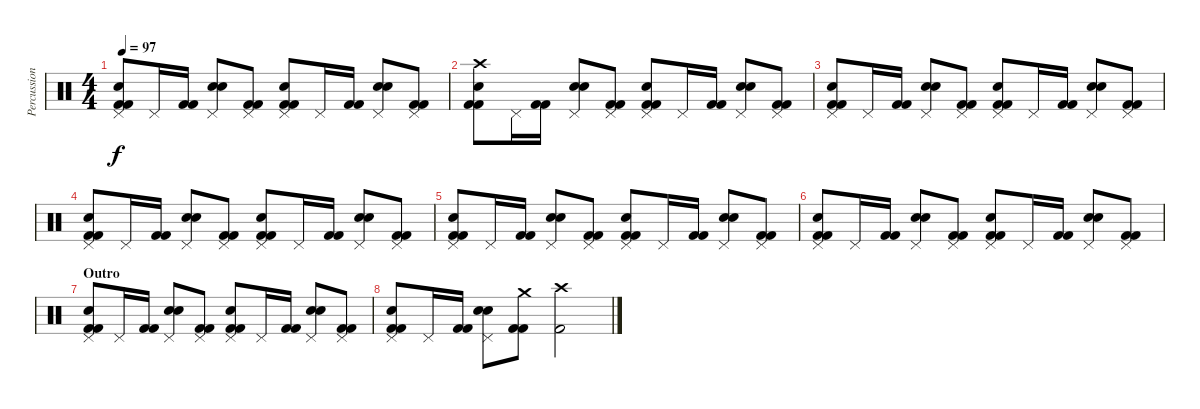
\track ("Percussions" "Percussion") {instrument percussion}
\staff {score}
\articulation defaults
\ts (4 4)
\tempo 97
\clef neutral
\ks c
("Pedal Hi-Hat (hit)" "Hand Clap (hit)" "Kick (hit) 2" "Kick (hit) 2").8{dy f} "Pedal Hi-Hat (hit)".16 ("Kick (hit) 2" "Kick (hit) 2").16 ("Pedal Hi-Hat (hit)" "Electric Snare (hit)" "Hand Clap (hit)").8 ("Pedal Hi-Hat (hit)" "Kick (hit) 2" "Kick (hit) 2").8 ("Pedal Hi-Hat (hit)" "Hand Clap (hit)" "Kick (hit) 2" "Kick (hit) 2").8 "Pedal Hi-Hat (hit)".16 ("Kick (hit) 2" "Kick (hit) 2").16 ("Pedal Hi-Hat (hit)" "Electric Snare (hit)" "Hand Clap (hit)").8 ("Pedal Hi-Hat (hit)" "Kick (hit) 2" "Kick (hit) 2").8 |
("Crash high (hit)" "Hand Clap (hit)" "Kick (hit) 2" "Kick (hit) 2").8 "Pedal Hi-Hat (hit)".16 ("Kick (hit) 2" "Kick (hit) 2").16 ("Pedal Hi-Hat (hit)" "Electric Snare (hit)" "Hand Clap (hit)").8 ("Pedal Hi-Hat (hit)" "Kick (hit) 2" "Kick (hit) 2").8 ("Pedal Hi-Hat (hit)" "Hand Clap (hit)" "Kick (hit) 2" "Kick (hit) 2").8 "Pedal Hi-Hat (hit)".16 ("Kick (hit) 2" "Kick (hit) 2").16 ("Pedal Hi-Hat (hit)" "Electric Snare (hit)" "Hand Clap (hit)").8 ("Pedal Hi-Hat (hit)" "Kick (hit) 2" "Kick (hit) 2").8 |
("Pedal Hi-Hat (hit)" "Hand Clap (hit)" "Kick (hit) 2" "Kick (hit) 2").8 "Pedal Hi-Hat (hit)".16 ("Kick (hit) 2" "Kick (hit) 2").16 ("Pedal Hi-Hat (hit)" "Electric Snare (hit)" "Hand Clap (hit)").8 ("Pedal Hi-Hat (hit)" "Kick (hit) 2" "Kick (hit) 2").8 ("Pedal Hi-Hat (hit)" "Hand Clap (hit)" "Kick (hit) 2" "Kick (hit) 2").8 "Pedal Hi-Hat (hit)".16 ("Kick (hit) 2" "Kick (hit) 2").16 ("Pedal Hi-Hat (hit)" "Electric Snare (hit)" "Hand Clap (hit)").8 ("Pedal Hi-Hat (hit)" "Kick (hit) 2" "Kick (hit) 2").8 |
("Pedal Hi-Hat (hit)" "Hand Clap (hit)" "Kick (hit) 2" "Kick (hit) 2").8 "Pedal Hi-Hat (hit)".16 ("Kick (hit) 2" "Kick (hit) 2").16 ("Pedal Hi-Hat (hit)" "Electric Snare (hit)" "Hand Clap (hit)").8 ("Pedal Hi-Hat (hit)" "Kick (hit) 2" "Kick (hit) 2").8 ("Pedal Hi-Hat (hit)" "Hand Clap (hit)" "Kick (hit) 2" "Kick (hit) 2").8 "Pedal Hi-Hat (hit)".16 ("Kick (hit) 2" "Kick (hit) 2").16 ("Pedal Hi-Hat (hit)" "Electric Snare (hit)" "Hand Clap (hit)").8 ("Pedal Hi-Hat (hit)" "Kick (hit) 2" "Kick (hit) 2").8 |
("Pedal Hi-Hat (hit)" "Hand Clap (hit)" "Kick (hit) 2" "Kick (hit) 2").8 "Pedal Hi-Hat (hit)".16 ("Kick (hit) 2" "Kick (hit) 2").16 ("Pedal Hi-Hat (hit)" "Electric Snare (hit)" "Hand Clap (hit)").8 ("Pedal Hi-Hat (hit)" "Kick (hit) 2" "Kick (hit) 2").8 ("Pedal Hi-Hat (hit)" "Hand Clap (hit)" "Kick (hit) 2" "Kick (hit) 2").8 "Pedal Hi-Hat (hit)".16 ("Kick (hit) 2" "Kick (hit) 2").16 ("Pedal Hi-Hat (hit)" "Electric Snare (hit)" "Hand Clap (hit)").8 ("Pedal Hi-Hat (hit)" "Kick (hit) 2" "Kick (hit) 2").8 |
("Pedal Hi-Hat (hit)" "Hand Clap (hit)" "Kick (hit) 2" "Kick (hit) 2").8 "Pedal Hi-Hat (hit)".16 ("Kick (hit) 2" "Kick (hit) 2").16 ("Pedal Hi-Hat (hit)" "Electric Snare (hit)" "Hand Clap (hit)").8 ("Pedal Hi-Hat (hit)" "Kick (hit) 2" "Kick (hit) 2").8 ("Pedal Hi-Hat (hit)" "Hand Clap (hit)" "Kick (hit) 2" "Kick (hit) 2").8 "Pedal Hi-Hat (hit)".16 ("Kick (hit) 2" "Kick (hit) 2").16 ("Pedal Hi-Hat (hit)" "Hand Clap (hit)" "Electric Snare (hit)").8 ("Pedal Hi-Hat (hit)" "Kick (hit) 2" "Kick (hit) 2").8 |
\section ("" "Outro")
("Pedal Hi-Hat (hit)" "Hand Clap (hit)" "Kick (hit) 2" "Kick (hit) 2").8 "Pedal Hi-Hat (hit)".16 ("Kick (hit) 2" "Kick (hit) 2").16 ("Pedal Hi-Hat (hit)" "Electric Snare (hit)" "Hand Clap (hit)").8 ("Pedal Hi-Hat (hit)" "Kick (hit) 2" "Kick (hit) 2").8 ("Pedal Hi-Hat (hit)" "Hand Clap (hit)" "Kick (hit) 2" "Kick (hit) 2").8 "Pedal Hi-Hat (hit)".16 ("Kick (hit) 2" "Kick (hit) 2").16 ("Pedal Hi-Hat (hit)" "Electric Snare (hit)" "Hand Clap (hit)").8 ("Pedal Hi-Hat (hit)" "Kick (hit) 2" "Kick (hit) 2").8 |
("Pedal Hi-Hat (hit)" "Hand Clap (hit)" "Kick (hit) 2" "Kick (hit) 2").8 "Pedal Hi-Hat (hit)".16 ("Kick (hit) 2" "Kick (hit) 2").16 ("Pedal Hi-Hat (hit)" "Electric Snare (hit)" "Hand Clap (hit)").8 ("Crash medium (hit)" "Kick (hit) 2" "Kick (hit) 2").8 ("Crash high (hit)" "Kick (hit) 2").2
